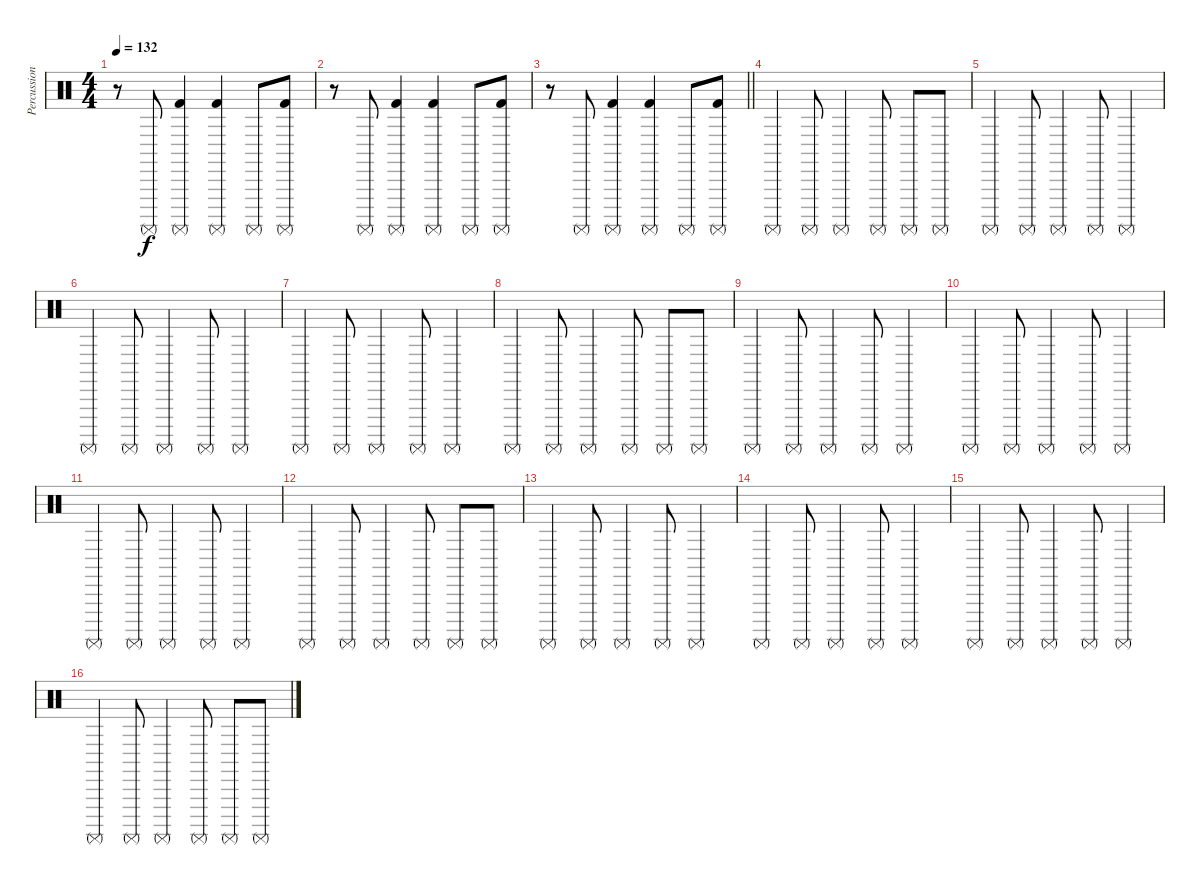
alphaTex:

\track ("Percussion" "Percussion") {instrument percussion}
\staff {score}
\articulation defaults
\ts (4 4)
\tempo 132
\clef neutral
\ks c
r.8{dy f} "Surdo (mute)".8 ("Surdo (mute)" "Kick (hit) 2").4 ("Surdo (mute)" "Kick (hit) 2").4 "Surdo (mute)".8 ("Surdo (mute)" "Kick (hit) 2").8 |
r.8 "Surdo (mute)".8 ("Surdo (mute)" "Kick (hit) 2").4 ("Surdo (mute)" "Kick (hit) 2").4 "Surdo (mute)".8 ("Surdo (mute)" "Kick (hit) 2").8 |
\barLineRight lightlight
r.8 "Surdo (mute)".8 ("Surdo (mute)" "Kick (hit) 2").4 ("Surdo (mute)" "Kick (hit) 2").4 "Surdo (mute)".8 ("Surdo (mute)" "Kick (hit) 2").8 |
\section ("" "")
"Surdo (mute)".4 "Surdo (mute)".8 "Surdo (mute)".4 "Surdo (mute)".8 "Surdo (mute)".8 "Surdo (mute)".8 |
"Surdo (mute)".4 "Surdo (mute)".8 "Surdo (mute)".4 "Surdo (mute)".8 "Surdo (mute)".4 |
"Surdo (mute)".4 "Surdo (mute)".8 "Surdo (mute)".4 "Surdo (mute)".8 "Surdo (mute)".4 |
"Surdo (mute)".4 "Surdo (mute)".8 "Surdo (mute)".4 "Surdo (mute)".8 "Surdo (mute)".4 |
"Surdo (mute)".4 "Surdo (mute)".8 "Surdo (mute)".4 "Surdo (mute)".8 "Surdo (mute)".8 "Surdo (mute)".8 |
"Surdo (mute)".4 "Surdo (mute)".8 "Surdo (mute)".4 "Surdo (mute)".8 "Surdo (mute)".4 |
"Surdo (mute)".4 "Surdo (mute)".8 "Surdo (mute)".4 "Surdo (mute)".8 "Surdo (mute)".4 |
"Surdo (mute)".4 "Surdo (mute)".8 "Surdo (mute)".4 "Surdo (mute)".8 "Surdo (mute)".4 |
"Surdo (mute)".4 "Surdo (mute)".8 "Surdo (mute)".4 "Surdo (mute)".8 "Surdo (mute)".8 "Surdo (mute)".8 |
"Surdo (mute)".4 "Surdo (mute)".8 "Surdo (mute)".4 "Surdo (mute)".8 "Surdo (mute)".4 |
"Surdo (mute)".4 "Surdo (mute)".8 "Surdo (mute)".4 "Surdo (mute)".8 "Surdo (mute)".4 |
"Surdo (mute)".4 "Surdo (mute)".8 "Surdo (mute)".4 "Surdo (mute)".8 "Surdo (mute)".4 |
"Surdo (mute)".4 "Surdo (mute)".8 "Surdo (mute)".4 "Surdo (mute)".8 "Surdo (mute)".8 "Surdo (mute)".8
